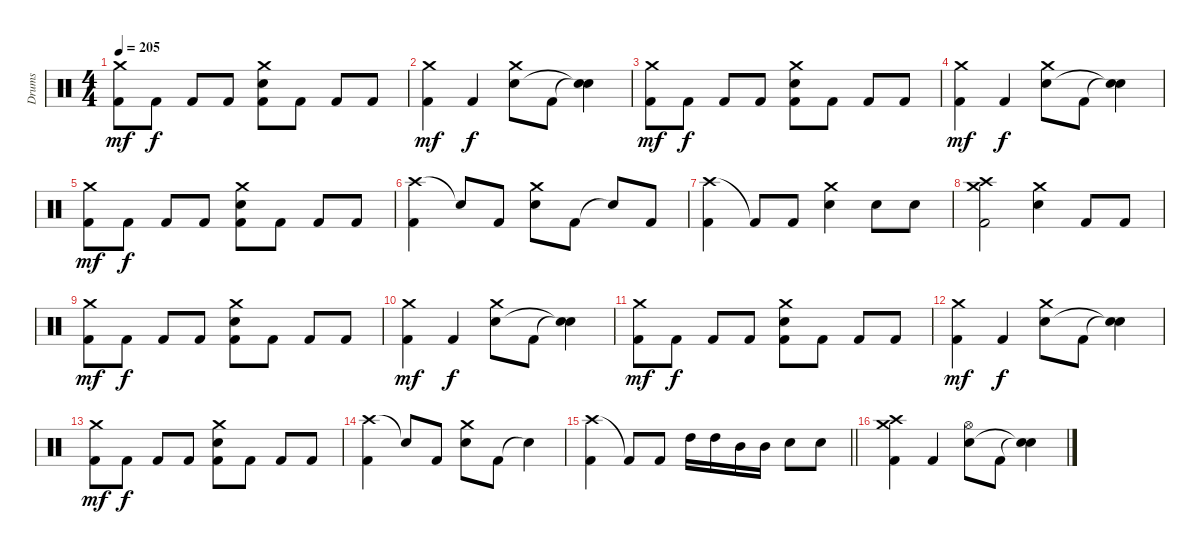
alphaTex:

\track ("Drums" "Drums") {instrument percussion}
\staff {score}
\articulation defaults
\ts (4 4)
\tempo 205
\clef neutral
\ks c
("Crash medium (hit)" "Kick (hit) 2").8{dy mf} "Kick (hit) 2".8{dy f} "Kick (hit) 2".8 "Kick (hit) 2".8 ("Crash medium (hit)" "Electric Snare (hit)" "Kick (hit) 2").8 "Kick (hit) 2".8 "Kick (hit) 2".8 "Kick (hit) 2".8 |
("Crash medium (hit)" "Kick (hit) 2").4{dy mf} "Kick (hit) 2".4{dy f} ("Crash medium (hit)" "Electric Snare (hit)").8 "Kick (hit) 2".8 ("Snare (hit)"{t} "Snare (hit)"{t}).4 |
("Crash medium (hit)" "Kick (hit) 2").8{dy mf} "Kick (hit) 2".8{dy f} "Kick (hit) 2".8 "Kick (hit) 2".8 ("Crash medium (hit)" "Electric Snare (hit)" "Kick (hit) 2").8 "Kick (hit) 2".8 "Kick (hit) 2".8 "Kick (hit) 2".8 |
("Crash medium (hit)" "Kick (hit) 2").4{dy mf} "Kick (hit) 2".4{dy f} ("Crash medium (hit)" "Electric Snare (hit)").8 "Kick (hit) 2".8 ("Snare (hit)"{t} "Snare (hit)"{t}).4 |
("Crash medium (hit)" "Kick (hit) 2").8{dy mf} "Kick (hit) 2".8{dy f} "Kick (hit) 2".8 "Kick (hit) 2".8 ("Crash medium (hit)" "Electric Snare (hit)" "Kick (hit) 2").8 "Kick (hit) 2".8 "Kick (hit) 2".8 "Kick (hit) 2".8 |
("Crash high (hit)" "Kick (hit) 2").4 "Snare (hit)"{t}.8 "Kick (hit) 2".8 ("Crash medium (hit)" "Electric Snare (hit)").8 "Kick (hit) 2".8 "Snare (hit)"{t}.8 "Kick (hit) 2".8 |
("Crash high (hit)" "Kick (hit) 2").4 "Kick (hit) 2"{t}.8 "Kick (hit) 2".8 ("Crash medium (hit)" "Electric Snare (hit)").4 "Electric Snare (hit)".8 "Electric Snare (hit)".8 |
("Crash high (hit)" "Crash medium (hit)" "Kick (hit) 2").2 ("Crash medium (hit)" "Electric Snare (hit)").4 "Kick (hit) 2".8 "Kick (hit) 2".8 |
("Crash medium (hit)" "Kick (hit) 2").8{dy mf} "Kick (hit) 2".8{dy f} "Kick (hit) 2".8 "Kick (hit) 2".8 ("Crash medium (hit)" "Electric Snare (hit)" "Kick (hit) 2").8 "Kick (hit) 2".8 "Kick (hit) 2".8 "Kick (hit) 2".8 |
("Crash medium (hit)" "Kick (hit) 2").4{dy mf} "Kick (hit) 2".4{dy f} ("Crash medium (hit)" "Electric Snare (hit)").8 "Kick (hit) 2".8 ("Snare (hit)"{t} "Snare (hit)"{t}).4 |
("Crash medium (hit)" "Kick (hit) 2").8{dy mf} "Kick (hit) 2".8{dy f} "Kick (hit) 2".8 "Kick (hit) 2".8 ("Crash medium (hit)" "Electric Snare (hit)" "Kick (hit) 2").8 "Kick (hit) 2".8 "Kick (hit) 2".8 "Kick (hit) 2".8 |
("Crash medium (hit)" "Kick (hit) 2").4{dy mf} "Kick (hit) 2".4{dy f} ("Crash medium (hit)" "Electric Snare (hit)").8 "Kick (hit) 2".8 ("Snare (hit)"{t} "Snare (hit)"{t}).4 |
("Crash medium (hit)" "Kick (hit) 2").8{dy mf} "Kick (hit) 2".8{dy f} "Kick (hit) 2".8 "Kick (hit) 2".8 ("Crash medium (hit)" "Electric Snare (hit)" "Kick (hit) 2").8 "Kick (hit) 2".8 "Kick (hit) 2".8 "Kick (hit) 2".8 |
("Crash high (hit)" "Kick (hit) 2").4 "Snare (hit)"{t}.8 "Kick (hit) 2".8 ("Crash medium (hit)" "Electric Snare (hit)").8 "Kick (hit) 2".8 "Snare (hit)"{t}.4 |
\barLineRight lightlight
("Crash high (hit)" "Kick (hit) 2").4 "Kick (hit) 2"{t}.8 "Kick (hit) 2".8 "High Tom (hit)".16 "High Tom (hit)".16 "Mid Tom (hit)".16 "Mid Tom (hit)".16 "Electric Snare (hit)".8 "Electric Snare (hit)".8 |
("Crash high (hit)" "Crash medium (hit)" "Kick (hit) 2").4 "Kick (hit) 2".4 ("Hi-Hat (open)" "Electric Snare (hit)").8 "Kick (hit) 2".8 ("Snare (hit)"{t} "Snare (hit)"{t}).4
